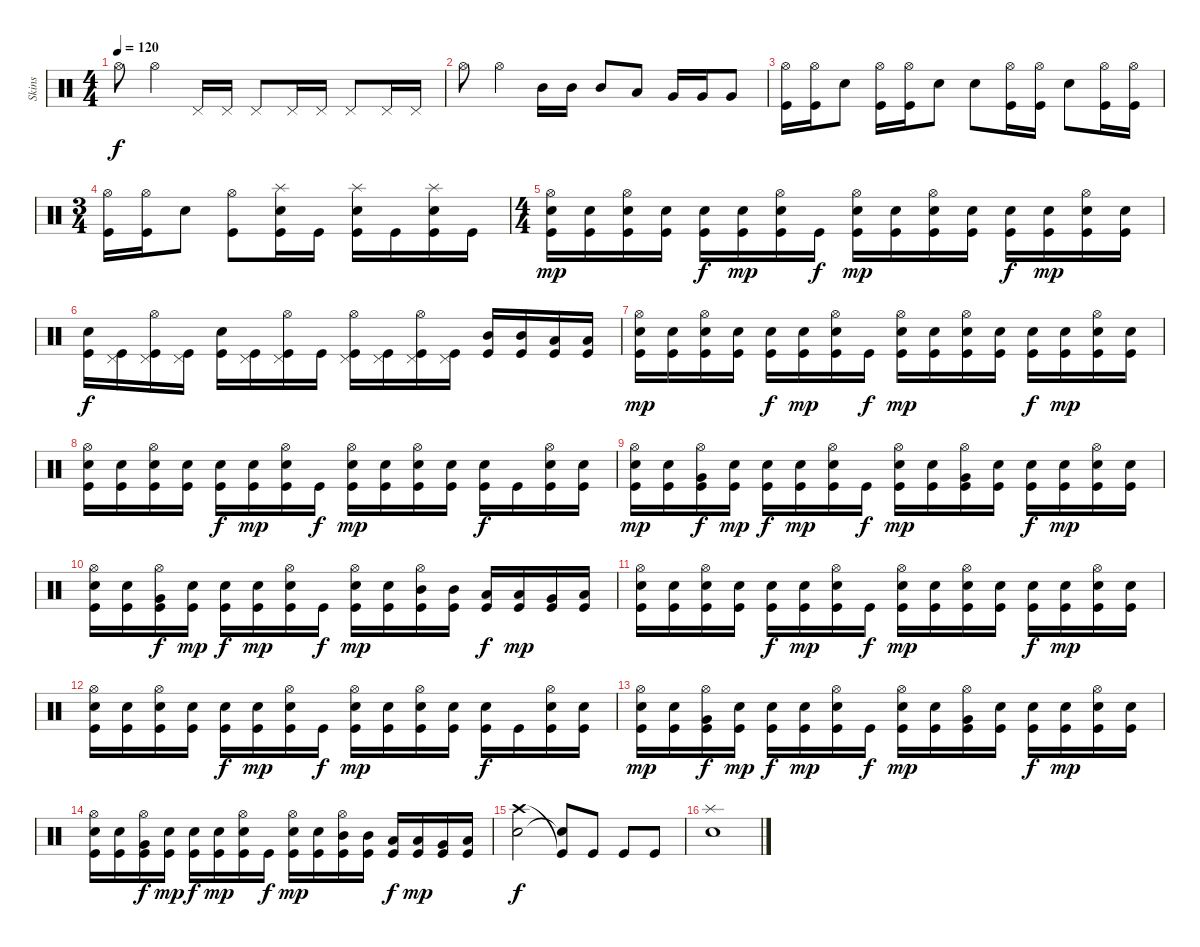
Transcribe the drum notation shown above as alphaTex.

\track ("Skins" "Skins") {instrument percussion}
\staff {score}
\articulation defaults
\ts (4 4)
\tempo 120
\clef neutral
\ks c "Hi-Hat (open)".8{dy f} "Hi-Hat (open)".4 "Pedal Hi-Hat (hit)".16 "Pedal Hi-Hat (hit)".16 "Pedal Hi-Hat (hit)".8 "Pedal Hi-Hat (hit)".16 "Pedal Hi-Hat (hit)".16 "Pedal Hi-Hat (hit)".8 "Pedal Hi-Hat (hit)".16 "Pedal Hi-Hat (hit)".16
|
"Hi-Hat (open)".8 "Hi-Hat (open)".4 "Mid Tom (hit)".16 "Mid Tom (hit)".16 "Mid Tom (hit)".8 "Low Tom (hit)".8 "Very Low Tom (hit)".16 "Very Low Tom (hit)".16 "Very Low Tom (hit)".8 |
("Kick (hit)" "Hi-Hat (open)").16 ("Kick (hit)" "Hi-Hat (open)").16 "Snare (hit) 2".8 ("Kick (hit)" "Hi-Hat (open)").16 ("Kick (hit)" "Hi-Hat (open)").16 "Snare (hit) 2".8 "Snare (hit) 2".8 ("Kick (hit)" "Hi-Hat (open)").16 ("Kick (hit)" "Hi-Hat (open)").16 "Snare (hit) 2".8 ("Kick (hit)" "Hi-Hat (open)").16 ("Kick (hit)" "Hi-Hat (open)").16 |
\ts (3 4)
("Kick (hit)" "Hi-Hat (open)").16 ("Kick (hit)" "Hi-Hat (open)").16 "Snare (hit) 2".8 ("Kick (hit)" "Hi-Hat (open)").8 ("Snare (hit) 2" "Splash (hit)" "Kick (hit)").16 "Kick (hit)".16 ("Snare (hit) 2" "Splash (hit)" "Kick (hit)").16 "Kick (hit)".16 ("Snare (hit) 2" "Splash (hit)" "Kick (hit)").16 "Kick (hit)".16 |
\ts (4 4)
("Electric Snare (hit)" "Hi-Hat (open)" "Kick (hit)").16{dy mp} ("Electric Snare (hit)" "Kick (hit)").16 ("Electric Snare (hit)" "Hi-Hat (open)" "Kick (hit)").16 ("Electric Snare (hit)" "Kick (hit)").16 ("Snare (hit) 2" "Kick (hit)").16{dy f} ("Electric Snare (hit)" "Kick (hit)").16{dy mp} ("Electric Snare (hit)" "Hi-Hat (open)" "Kick (hit)").16 "Kick (hit)".16{dy f} ("Electric Snare (hit)" "Hi-Hat (open)" "Kick (hit)").16{dy mp} ("Electric Snare (hit)" "Kick (hit)").16 ("Electric Snare (hit)" "Hi-Hat (open)" "Kick (hit)").16 ("Electric Snare (hit)" "Kick (hit)").16 ("Snare (hit) 2" "Kick (hit)").16{dy f} ("Electric Snare (hit)" "Kick (hit)").16{dy mp} ("Electric Snare (hit)" "Hi-Hat (open)" "Kick (hit)").16 ("Electric Snare (hit)" "Kick (hit)").16 |
("Snare (hit) 2" "Kick (hit)").16{dy f} ("Pedal Hi-Hat (hit)" "Kick (hit)").16 ("Pedal Hi-Hat (hit)" "Hi-Hat (open)" "Kick (hit)").16 ("Pedal Hi-Hat (hit)" "Kick (hit)").16 ("Snare (hit) 2" "Kick (hit)").16 ("Pedal Hi-Hat (hit)" "Kick (hit)").16 ("Pedal Hi-Hat (hit)" "Hi-Hat (open)" "Kick (hit)").16 "Kick (hit)".16 ("Pedal Hi-Hat (hit)" "Hi-Hat (open)" "Kick (hit)").16 ("Pedal Hi-Hat (hit)" "Kick (hit)").16 ("Pedal Hi-Hat (hit)" "Hi-Hat (open)" "Kick (hit)").16 ("Pedal Hi-Hat (hit)" "Kick (hit)").16 ("Mid Tom (hit)" "Kick (hit)").16 ("Mid Tom (hit)" "Kick (hit)").16 ("Low Tom (hit)" "Kick (hit)").16 ("Low Tom (hit)" "Kick (hit)").16 |
("Electric Snare (hit)" "Hi-Hat (open)" "Kick (hit)").16{dy mp} ("Electric Snare (hit)" "Kick (hit)").16 ("Electric Snare (hit)" "Hi-Hat (open)" "Kick (hit)").16 ("Electric Snare (hit)" "Kick (hit)").16 ("Snare (hit) 2" "Kick (hit)").16{dy f} ("Electric Snare (hit)" "Kick (hit)").16{dy mp} ("Electric Snare (hit)" "Hi-Hat (open)" "Kick (hit)").16 "Kick (hit)".16{dy f} ("Electric Snare (hit)" "Hi-Hat (open)" "Kick (hit)").16{dy mp} ("Electric Snare (hit)" "Kick (hit)").16 ("Electric Snare (hit)" "Hi-Hat (open)" "Kick (hit)").16 ("Electric Snare (hit)" "Kick (hit)").16 ("Snare (hit) 2" "Kick (hit)").16{dy f} ("Electric Snare (hit)" "Kick (hit)").16{dy mp} ("Electric Snare (hit)" "Hi-Hat (open)" "Kick (hit)").16 ("Electric Snare (hit)" "Kick (hit)").16 |
("Electric Snare (hit)" "Hi-Hat (open)" "Kick (hit)").16 ("Electric Snare (hit)" "Kick (hit)").16 ("Electric Snare (hit)" "Hi-Hat (open)" "Kick (hit)").16 ("Electric Snare (hit)" "Kick (hit)").16 ("Snare (hit) 2" "Kick (hit)").16{dy f} ("Electric Snare (hit)" "Kick (hit)").16{dy mp} ("Electric Snare (hit)" "Hi-Hat (open)" "Kick (hit)").16 "Kick (hit)".16{dy f} ("Electric Snare (hit)" "Hi-Hat (open)" "Kick (hit)").16{dy mp} ("Electric Snare (hit)" "Kick (hit)").16 ("Electric Snare (hit)" "Hi-Hat (open)" "Kick (hit)").16 ("Electric Snare (hit)" "Kick (hit)").16 ("Snare (hit) 2" "Kick (hit)").16{dy f} "Kick (hit)".16 ("Snare (hit) 2" "Hi-Hat (open)" "Kick (hit)").16 ("Snare (hit) 2" "Kick (hit)").16 |
("Electric Snare (hit)" "Hi-Hat (open)" "Kick (hit)").16{dy mp} ("Electric Snare (hit)" "Kick (hit)").16 ("Very Low Tom (hit)" "Hi-Hat (open)" "Kick (hit)").16{dy f} ("Electric Snare (hit)" "Kick (hit)").16{dy mp} ("Snare (hit) 2" "Kick (hit)").16{dy f} ("Electric Snare (hit)" "Kick (hit)").16{dy mp} ("Electric Snare (hit)" "Hi-Hat (open)" "Kick (hit)").16 "Kick (hit)".16{dy f} ("Electric Snare (hit)" "Hi-Hat (open)" "Kick (hit)").16{dy mp} ("Electric Snare (hit)" "Kick (hit)").16 ("Very Low Tom (hit)" "Hi-Hat (open)" "Kick (hit)").16 ("Electric Snare (hit)" "Kick (hit)").16 ("Snare (hit) 2" "Kick (hit)").16{dy f} ("Electric Snare (hit)" "Kick (hit)").16{dy mp} ("Electric Snare (hit)" "Hi-Hat (open)" "Kick (hit)").16 ("Electric Snare (hit)" "Kick (hit)").16 |
("Electric Snare (hit)" "Hi-Hat (open)" "Kick (hit)").16 ("Electric Snare (hit)" "Kick (hit)").16 ("Very Low Tom (hit)" "Hi-Hat (open)" "Kick (hit)").16{dy f} ("Electric Snare (hit)" "Kick (hit)").16{dy mp} ("Snare (hit) 2" "Kick (hit)").16{dy f} ("Electric Snare (hit)" "Kick (hit)").16{dy mp} ("Electric Snare (hit)" "Hi-Hat (open)" "Kick (hit)").16 "Kick (hit)".16{dy f} ("Electric Snare (hit)" "Hi-Hat (open)" "Kick (hit)").16{dy mp} ("Electric Snare (hit)" "Kick (hit)").16 ("Mid Tom (hit)" "Hi-Hat (open)" "Kick (hit)").16 ("Mid Tom (hit)" "Kick (hit)").16 ("Low Tom (hit)" "Kick (hit)").16{dy f} ("Low Tom (hit)" "Kick (hit)").16{dy mp} ("Very Low Tom (hit)" "Kick (hit)").16 ("Low Floor Tom (hit)" "Kick (hit)").16 |
("Electric Snare (hit)" "Hi-Hat (open)" "Kick (hit)").16 ("Electric Snare (hit)" "Kick (hit)").16 ("Electric Snare (hit)" "Hi-Hat (open)" "Kick (hit)").16 ("Electric Snare (hit)" "Kick (hit)").16 ("Snare (hit) 2" "Kick (hit)").16{dy f} ("Electric Snare (hit)" "Kick (hit)").16{dy mp} ("Electric Snare (hit)" "Hi-Hat (open)" "Kick (hit)").16 "Kick (hit)".16{dy f} ("Electric Snare (hit)" "Hi-Hat (open)" "Kick (hit)").16{dy mp} ("Electric Snare (hit)" "Kick (hit)").16 ("Electric Snare (hit)" "Hi-Hat (open)" "Kick (hit)").16 ("Electric Snare (hit)" "Kick (hit)").16 ("Snare (hit) 2" "Kick (hit)").16{dy f} ("Electric Snare (hit)" "Kick (hit)").16{dy mp} ("Electric Snare (hit)" "Hi-Hat (open)" "Kick (hit)").16 ("Electric Snare (hit)" "Kick (hit)").16 |
("Electric Snare (hit)" "Hi-Hat (open)" "Kick (hit)").16 ("Electric Snare (hit)" "Kick (hit)").16 ("Electric Snare (hit)" "Hi-Hat (open)" "Kick (hit)").16 ("Electric Snare (hit)" "Kick (hit)").16 ("Snare (hit) 2" "Kick (hit)").16{dy f} ("Electric Snare (hit)" "Kick (hit)").16{dy mp} ("Electric Snare (hit)" "Hi-Hat (open)" "Kick (hit)").16 "Kick (hit)".16{dy f} ("Electric Snare (hit)" "Hi-Hat (open)" "Kick (hit)").16{dy mp} ("Electric Snare (hit)" "Kick (hit)").16 ("Electric Snare (hit)" "Hi-Hat (open)" "Kick (hit)").16 ("Electric Snare (hit)" "Kick (hit)").16 ("Snare (hit) 2" "Kick (hit)").16{dy f} "Kick (hit)".16 ("Snare (hit) 2" "Hi-Hat (open)" "Kick (hit)").16 ("Snare (hit) 2" "Kick (hit)").16 |
("Electric Snare (hit)" "Hi-Hat (open)" "Kick (hit)").16{dy mp} ("Electric Snare (hit)" "Kick (hit)").16 ("Very Low Tom (hit)" "Hi-Hat (open)" "Kick (hit)").16{dy f} ("Electric Snare (hit)" "Kick (hit)").16{dy mp} ("Snare (hit) 2" "Kick (hit)").16{dy f} ("Electric Snare (hit)" "Kick (hit)").16{dy mp} ("Electric Snare (hit)" "Hi-Hat (open)" "Kick (hit)").16 "Kick (hit)".16{dy f} ("Electric Snare (hit)" "Hi-Hat (open)" "Kick (hit)").16{dy mp} ("Electric Snare (hit)" "Kick (hit)").16 ("Very Low Tom (hit)" "Hi-Hat (open)" "Kick (hit)").16 ("Electric Snare (hit)" "Kick (hit)").16 ("Snare (hit) 2" "Kick (hit)").16{dy f} ("Electric Snare (hit)" "Kick (hit)").16{dy mp} ("Electric Snare (hit)" "Hi-Hat (open)" "Kick (hit)").16 ("Electric Snare (hit)" "Kick (hit)").16 |
("Electric Snare (hit)" "Hi-Hat (open)" "Kick (hit)").16 ("Electric Snare (hit)" "Kick (hit)").16 ("Very Low Tom (hit)" "Hi-Hat (open)" "Kick (hit)").16{dy f} ("Electric Snare (hit)" "Kick (hit)").16{dy mp} ("Snare (hit) 2" "Kick (hit)").16{dy f} ("Electric Snare (hit)" "Kick (hit)").16{dy mp} ("Electric Snare (hit)" "Hi-Hat (open)" "Kick (hit)").16 "Kick (hit)".16{dy f} ("Electric Snare (hit)" "Hi-Hat (open)" "Kick (hit)").16{dy mp} ("Electric Snare (hit)" "Kick (hit)").16 ("Mid Tom (hit)" "Hi-Hat (open)" "Kick (hit)").16 ("Mid Tom (hit)" "Kick (hit)").16 ("Low Tom (hit)" "Kick (hit)").16{dy f} ("Low Tom (hit)" "Kick (hit)").16{dy mp} ("Very Low Tom (hit)" "Kick (hit)").16 ("Low Floor Tom (hit)" "Kick (hit)").16 |
("Electric Snare (hit)" "Crash high (hit)").2{dy f} ("Snare (hit)"{t} "Kick (hit)"{t}).8 "Kick (hit)".8 "Kick (hit)".8 "Kick (hit)".8 |
("Electric Snare (hit)" "Splash (hit)").1
